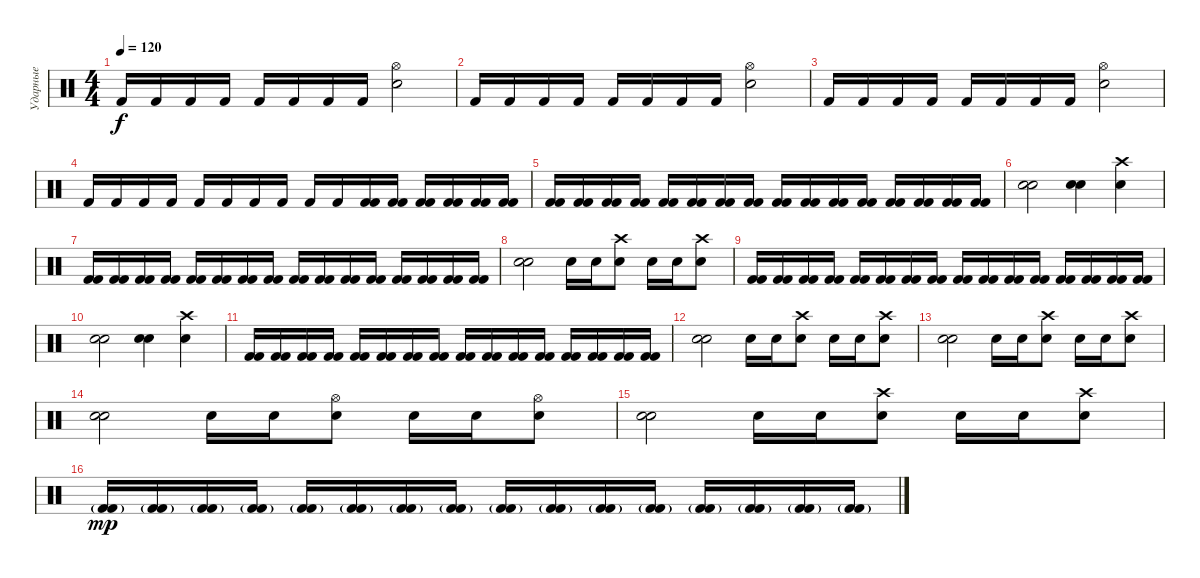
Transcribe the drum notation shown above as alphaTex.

\track ("Ударные" "Ударные") {instrument percussion}
\staff {score}
\articulation defaults
\ts (4 4)
\tempo 120
\clef neutral
\ks c "Kick (hit) 2".16{dy f} "Kick (hit) 2".16 "Kick (hit) 2".16 "Kick (hit) 2".16 "Kick (hit) 2".16 "Kick (hit) 2".16 "Kick (hit) 2".16 "Kick (hit) 2".16
("Electric Snare (hit)" "Hi-Hat (open)").2 |
"Kick (hit) 2".16 "Kick (hit) 2".16 "Kick (hit) 2".16 "Kick (hit) 2".16 "Kick (hit) 2".16 "Kick (hit) 2".16 "Kick (hit) 2".16 "Kick (hit) 2".16 ("Electric Snare (hit)" "Hi-Hat (open)").2 |
"Kick (hit) 2".16 "Kick (hit) 2".16 "Kick (hit) 2".16 "Kick (hit) 2".16 "Kick (hit) 2".16 "Kick (hit) 2".16 "Kick (hit) 2".16 "Kick (hit) 2".16 ("Electric Snare (hit)" "Hi-Hat (open)").2 |
"Kick (hit) 2".16 "Kick (hit) 2".16 "Kick (hit) 2".16 "Kick (hit) 2".16 "Kick (hit) 2".16 "Kick (hit) 2".16 "Kick (hit) 2".16 "Kick (hit) 2".16 "Kick (hit) 2".16 "Kick (hit) 2".16 ("Kick (hit) 2" "Kick (hit) 2").16 ("Kick (hit) 2" "Kick (hit) 2").16 ("Kick (hit) 2" "Kick (hit) 2").16 ("Kick (hit) 2" "Kick (hit) 2").16 ("Kick (hit) 2" "Kick (hit) 2").16 ("Kick (hit) 2" "Kick (hit) 2").16 |
("Kick (hit) 2" "Kick (hit) 2").16 ("Kick (hit) 2" "Kick (hit) 2").16 ("Kick (hit) 2" "Kick (hit) 2").16 ("Kick (hit) 2" "Kick (hit) 2").16 ("Kick (hit) 2" "Kick (hit) 2").16 ("Kick (hit) 2" "Kick (hit) 2").16 ("Kick (hit) 2" "Kick (hit) 2").16 ("Kick (hit) 2" "Kick (hit) 2").16 ("Kick (hit) 2" "Kick (hit) 2").16 ("Kick (hit) 2" "Kick (hit) 2").16 ("Kick (hit) 2" "Kick (hit) 2").16 ("Kick (hit) 2" "Kick (hit) 2").16 ("Kick (hit) 2" "Kick (hit) 2").16 ("Kick (hit) 2" "Kick (hit) 2").16 ("Kick (hit) 2" "Kick (hit) 2").16 ("Kick (hit) 2" "Kick (hit) 2").16 |
("Electric Snare (hit)" "Electric Snare (hit)").2 ("Electric Snare (hit)" "Electric Snare (hit)").4 ("Crash high (hit)" "Electric Snare (hit)").4 |
("Kick (hit) 2" "Kick (hit) 2").16 ("Kick (hit) 2" "Kick (hit) 2").16 ("Kick (hit) 2" "Kick (hit) 2").16 ("Kick (hit) 2" "Kick (hit) 2").16 ("Kick (hit) 2" "Kick (hit) 2").16 ("Kick (hit) 2" "Kick (hit) 2").16 ("Kick (hit) 2" "Kick (hit) 2").16 ("Kick (hit) 2" "Kick (hit) 2").16 ("Kick (hit) 2" "Kick (hit) 2").16 ("Kick (hit) 2" "Kick (hit) 2").16 ("Kick (hit) 2" "Kick (hit) 2").16 ("Kick (hit) 2" "Kick (hit) 2").16 ("Kick (hit) 2" "Kick (hit) 2").16 ("Kick (hit) 2" "Kick (hit) 2").16 ("Kick (hit) 2" "Kick (hit) 2").16 ("Kick (hit) 2" "Kick (hit) 2").16 |
("Electric Snare (hit)" "Electric Snare (hit)").2 "Electric Snare (hit)".16 "Electric Snare (hit)".16 ("Crash high (hit)" "Electric Snare (hit)").8 "Electric Snare (hit)".16 "Electric Snare (hit)".16 ("Crash high (hit)" "Electric Snare (hit)").8 |
("Kick (hit) 2" "Kick (hit) 2").16 ("Kick (hit) 2" "Kick (hit) 2").16 ("Kick (hit) 2" "Kick (hit) 2").16 ("Kick (hit) 2" "Kick (hit) 2").16 ("Kick (hit) 2" "Kick (hit) 2").16 ("Kick (hit) 2" "Kick (hit) 2").16 ("Kick (hit) 2" "Kick (hit) 2").16 ("Kick (hit) 2" "Kick (hit) 2").16 ("Kick (hit) 2" "Kick (hit) 2").16 ("Kick (hit) 2" "Kick (hit) 2").16 ("Kick (hit) 2" "Kick (hit) 2").16 ("Kick (hit) 2" "Kick (hit) 2").16 ("Kick (hit) 2" "Kick (hit) 2").16 ("Kick (hit) 2" "Kick (hit) 2").16 ("Kick (hit) 2" "Kick (hit) 2").16 ("Kick (hit) 2" "Kick (hit) 2").16 |
("Electric Snare (hit)" "Electric Snare (hit)").2 ("Electric Snare (hit)" "Electric Snare (hit)").4 ("Crash high (hit)" "Electric Snare (hit)").4 |
("Kick (hit) 2" "Kick (hit) 2").16 ("Kick (hit) 2" "Kick (hit) 2").16 ("Kick (hit) 2" "Kick (hit) 2").16 ("Kick (hit) 2" "Kick (hit) 2").16 ("Kick (hit) 2" "Kick (hit) 2").16 ("Kick (hit) 2" "Kick (hit) 2").16 ("Kick (hit) 2" "Kick (hit) 2").16 ("Kick (hit) 2" "Kick (hit) 2").16 ("Kick (hit) 2" "Kick (hit) 2").16 ("Kick (hit) 2" "Kick (hit) 2").16 ("Kick (hit) 2" "Kick (hit) 2").16 ("Kick (hit) 2" "Kick (hit) 2").16 ("Kick (hit) 2" "Kick (hit) 2").16 ("Kick (hit) 2" "Kick (hit) 2").16 ("Kick (hit) 2" "Kick (hit) 2").16 ("Kick (hit) 2" "Kick (hit) 2").16 |
("Electric Snare (hit)" "Electric Snare (hit)").2 "Electric Snare (hit)".16 "Electric Snare (hit)".16 ("Crash high (hit)" "Electric Snare (hit)").8 "Electric Snare (hit)".16 "Electric Snare (hit)".16 ("Crash high (hit)" "Electric Snare (hit)").8 |
("Electric Snare (hit)" "Electric Snare (hit)").2 "Electric Snare (hit)".16 "Electric Snare (hit)".16 ("Crash high (hit)" "Electric Snare (hit)").8 "Electric Snare (hit)".16 "Electric Snare (hit)".16 ("Crash high (hit)" "Electric Snare (hit)").8 |
("Electric Snare (hit)" "Electric Snare (hit)").2 "Electric Snare (hit)".16 "Electric Snare (hit)".16 ("Hi-Hat (open)" "Electric Snare (hit)").8 "Electric Snare (hit)".16 "Electric Snare (hit)".16 ("Hi-Hat (open)" "Electric Snare (hit)").8 |
("Electric Snare (hit)" "Electric Snare (hit)").2 "Electric Snare (hit)".16 "Electric Snare (hit)".16 ("Crash high (hit)" "Electric Snare (hit)").8 "Electric Snare (hit)".16 "Electric Snare (hit)".16 ("Crash high (hit)" "Electric Snare (hit)").8 |
("Kick (hit) 2"{g} "Kick (hit) 2"{g}).16{dy mp} ("Kick (hit) 2"{g} "Kick (hit) 2"{g}).16 ("Kick (hit) 2"{g} "Kick (hit) 2"{g}).16 ("Kick (hit) 2"{g} "Kick (hit) 2"{g}).16 ("Kick (hit) 2"{g} "Kick (hit) 2"{g}).16 ("Kick (hit) 2"{g} "Kick (hit) 2"{g}).16 ("Kick (hit) 2"{g} "Kick (hit) 2"{g}).16 ("Kick (hit) 2"{g} "Kick (hit) 2"{g}).16 ("Kick (hit) 2"{g} "Kick (hit) 2"{g}).16 ("Kick (hit) 2"{g} "Kick (hit) 2"{g}).16 ("Kick (hit) 2"{g} "Kick (hit) 2"{g}).16 ("Kick (hit) 2"{g} "Kick (hit) 2"{g}).16 ("Kick (hit) 2"{g} "Kick (hit) 2"{g}).16 ("Kick (hit) 2"{g} "Kick (hit) 2"{g}).16 ("Kick (hit) 2"{g} "Kick (hit) 2"{g}).16 ("Kick (hit) 2"{g} "Kick (hit) 2"{g}).16
